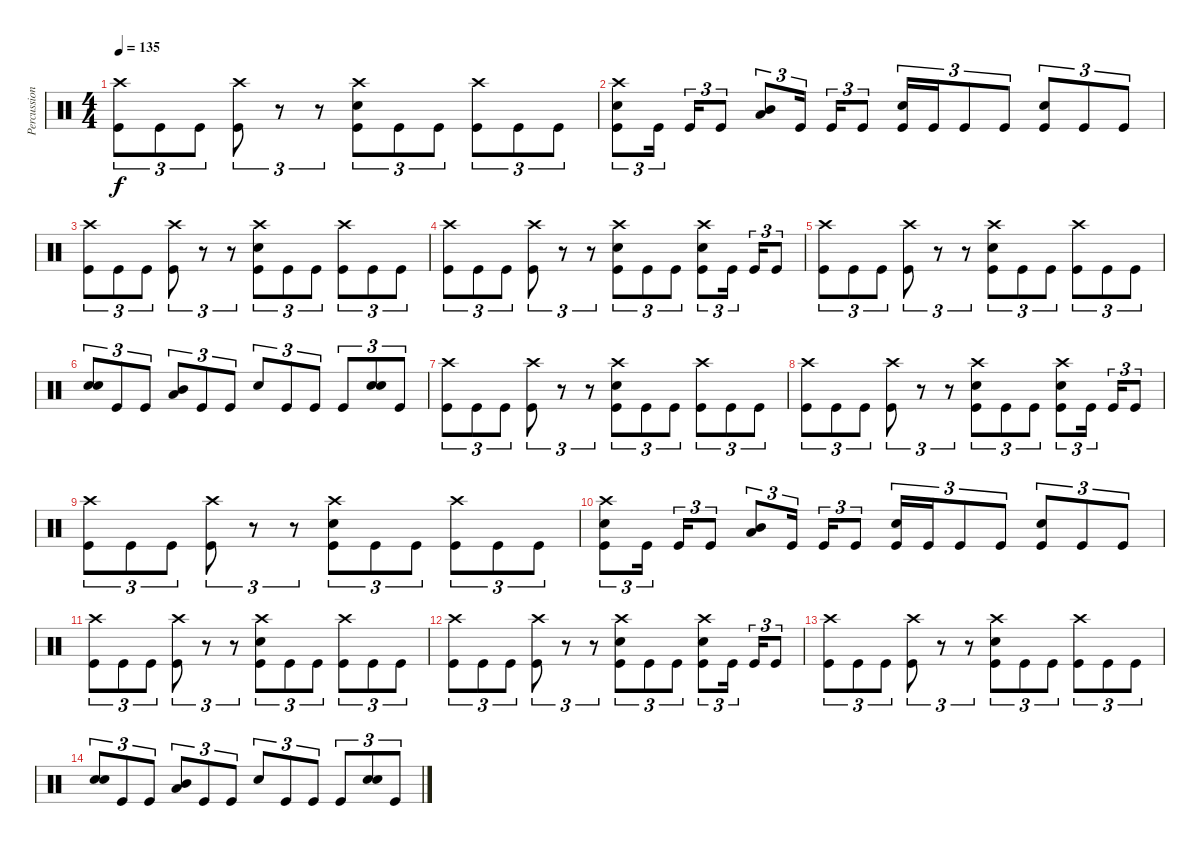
\track ("Percussion" "Percussion") {instrument percussion}
\staff {score}
\articulation defaults
\ts (4 4)
\tempo 135
\clef neutral
\ks c
("Crash high (hit)" "Kick (hit)").8{tu (3 2) dy f} "Kick (hit)".8{tu (3 2)} "Kick (hit)".8{tu (3 2)} ("Kick (hit)" "Crash high (hit)").8{tu (3 2)} r.8{tu (3 2)} r.8{tu (3 2)} ("Crash high (hit)" "Kick (hit)" "Snare (hit) 2").8{tu (3 2)} "Kick (hit)".8{tu (3 2)} "Kick (hit)".8{tu (3 2)} ("Kick (hit)" "Crash high (hit)").8{tu (3 2)} "Kick (hit)".8{tu (3 2)} "Kick (hit)".8{tu (3 2)} |
("Crash high (hit)" "Snare (hit) 2" "Kick (hit)").8{tu (3 2)} "Kick (hit)".16{tu (3 2) beam splitsecondary} "Kick (hit)".16{tu (3 2)} "Kick (hit)".8{tu (3 2)} ("Mid Tom (hit)" "Low Tom (hit)").8{tu (3 2)} "Kick (hit)".16{tu (3 2) beam splitsecondary} "Kick (hit)".16{tu (3 2)} "Kick (hit)".8{tu (3 2)} ("Snare (hit) 2" "Kick (hit)").16{tu (3 2)} "Kick (hit)".16{tu (3 2)} "Kick (hit)".8{tu (3 2)} "Kick (hit)".8{tu (3 2)} ("Snare (hit) 2" "Kick (hit)").8{tu (3 2)} "Kick (hit)".8{tu (3 2)} "Kick (hit)".8{tu (3 2)} |
("Crash high (hit)" "Kick (hit)").8{tu (3 2)} "Kick (hit)".8{tu (3 2)} "Kick (hit)".8{tu (3 2)} ("Kick (hit)" "Crash high (hit)").8{tu (3 2)} r.8{tu (3 2)} r.8{tu (3 2)} ("Crash high (hit)" "Kick (hit)" "Snare (hit) 2").8{tu (3 2)} "Kick (hit)".8{tu (3 2)} "Kick (hit)".8{tu (3 2)} ("Kick (hit)" "Crash high (hit)").8{tu (3 2)} "Kick (hit)".8{tu (3 2)} "Kick (hit)".8{tu (3 2)} |
("Crash high (hit)" "Kick (hit)").8{tu (3 2)} "Kick (hit)".8{tu (3 2)} "Kick (hit)".8{tu (3 2)} ("Kick (hit)" "Crash high (hit)").8{tu (3 2)} r.8{tu (3 2)} r.8{tu (3 2)} ("Crash high (hit)" "Kick (hit)" "Snare (hit) 2").8{tu (3 2)} "Kick (hit)".8{tu (3 2)} "Kick (hit)".8{tu (3 2)} ("Kick (hit)" "Crash high (hit)" "Snare (hit) 2").8{tu (3 2)} "Kick (hit)".16{tu (3 2) beam splitsecondary} "Kick (hit)".16{tu (3 2)} "Kick (hit)".8{tu (3 2)} |
("Crash high (hit)" "Kick (hit)").8{tu (3 2)} "Kick (hit)".8{tu (3 2)} "Kick (hit)".8{tu (3 2)} ("Kick (hit)" "Crash high (hit)").8{tu (3 2)} r.8{tu (3 2)} r.8{tu (3 2)} ("Crash high (hit)" "Kick (hit)" "Snare (hit) 2").8{tu (3 2)} "Kick (hit)".8{tu (3 2)} "Kick (hit)".8{tu (3 2)} ("Kick (hit)" "Crash high (hit)").8{tu (3 2)} "Kick (hit)".8{tu (3 2)} "Kick (hit)".8{tu (3 2)} |
("Snare (hit) 2" "Snare (hit) 2").8{tu (3 2)} "Kick (hit)".8{tu (3 2)} "Kick (hit)".8{tu (3 2)} ("Mid Tom (hit)" "Low Tom (hit)").8{tu (3 2)} "Kick (hit)".8{tu (3 2)} "Kick (hit)".8{tu (3 2)} "Snare (hit) 2".8{tu (3 2)} "Kick (hit)".8{tu (3 2)} "Kick (hit)".8{tu (3 2)} "Kick (hit)".8{tu (3 2)} ("Snare (hit) 2" "Snare (hit) 2").8{tu (3 2)} "Kick (hit)".8{tu (3 2)} |
("Crash high (hit)" "Kick (hit)").8{tu (3 2) volume 8} "Kick (hit)".8{tu (3 2)} "Kick (hit)".8{tu (3 2)} ("Kick (hit)" "Crash high (hit)").8{tu (3 2)} r.8{tu (3 2)} r.8{tu (3 2)} ("Crash high (hit)" "Kick (hit)" "Snare (hit) 2").8{tu (3 2)} "Kick (hit)".8{tu (3 2)} "Kick (hit)".8{tu (3 2)} ("Kick (hit)" "Crash high (hit)").8{tu (3 2)} "Kick (hit)".8{tu (3 2)} "Kick (hit)".8{tu (3 2)} |
("Crash high (hit)" "Kick (hit)").8{tu (3 2)} "Kick (hit)".8{tu (3 2)} "Kick (hit)".8{tu (3 2)} ("Kick (hit)" "Crash high (hit)").8{tu (3 2)} r.8{tu (3 2)} r.8{tu (3 2)} ("Crash high (hit)" "Kick (hit)" "Snare (hit) 2").8{tu (3 2)} "Kick (hit)".8{tu (3 2)} "Kick (hit)".8{tu (3 2)} ("Kick (hit)" "Crash high (hit)" "Snare (hit) 2").8{tu (3 2)} "Kick (hit)".16{tu (3 2) beam splitsecondary} "Kick (hit)".16{tu (3 2)} "Kick (hit)".8{tu (3 2)} |
("Crash high (hit)" "Kick (hit)").8{tu (3 2)} "Kick (hit)".8{tu (3 2)} "Kick (hit)".8{tu (3 2)} ("Kick (hit)" "Crash high (hit)").8{tu (3 2)} r.8{tu (3 2)} r.8{tu (3 2)} ("Crash high (hit)" "Kick (hit)" "Snare (hit) 2").8{tu (3 2)} "Kick (hit)".8{tu (3 2)} "Kick (hit)".8{tu (3 2)} ("Kick (hit)" "Crash high (hit)").8{tu (3 2)} "Kick (hit)".8{tu (3 2)} "Kick (hit)".8{tu (3 2)} |
("Crash high (hit)" "Snare (hit) 2" "Kick (hit)").8{tu (3 2)} "Kick (hit)".16{tu (3 2) beam splitsecondary} "Kick (hit)".16{tu (3 2)} "Kick (hit)".8{tu (3 2)} ("Mid Tom (hit)" "Low Tom (hit)").8{tu (3 2)} "Kick (hit)".16{tu (3 2) beam splitsecondary} "Kick (hit)".16{tu (3 2)} "Kick (hit)".8{tu (3 2)} ("Snare (hit) 2" "Kick (hit)").16{tu (3 2)} "Kick (hit)".16{tu (3 2)} "Kick (hit)".8{tu (3 2)} "Kick (hit)".8{tu (3 2)} ("Snare (hit) 2" "Kick (hit)").8{tu (3 2)} "Kick (hit)".8{tu (3 2)} "Kick (hit)".8{tu (3 2)} |
("Crash high (hit)" "Kick (hit)").8{tu (3 2) volume 0} "Kick (hit)".8{tu (3 2)} "Kick (hit)".8{tu (3 2)} ("Kick (hit)" "Crash high (hit)").8{tu (3 2)} r.8{tu (3 2)} r.8{tu (3 2)} ("Crash high (hit)" "Kick (hit)" "Snare (hit) 2").8{tu (3 2)} "Kick (hit)".8{tu (3 2)} "Kick (hit)".8{tu (3 2)} ("Kick (hit)" "Crash high (hit)").8{tu (3 2)} "Kick (hit)".8{tu (3 2)} "Kick (hit)".8{tu (3 2)} |
("Crash high (hit)" "Kick (hit)").8{tu (3 2)} "Kick (hit)".8{tu (3 2)} "Kick (hit)".8{tu (3 2)} ("Kick (hit)" "Crash high (hit)").8{tu (3 2)} r.8{tu (3 2)} r.8{tu (3 2)} ("Crash high (hit)" "Kick (hit)" "Snare (hit) 2").8{tu (3 2)} "Kick (hit)".8{tu (3 2)} "Kick (hit)".8{tu (3 2)} ("Kick (hit)" "Crash high (hit)" "Snare (hit) 2").8{tu (3 2)} "Kick (hit)".16{tu (3 2) beam splitsecondary} "Kick (hit)".16{tu (3 2)} "Kick (hit)".8{tu (3 2)} |
("Crash high (hit)" "Kick (hit)").8{tu (3 2)} "Kick (hit)".8{tu (3 2)} "Kick (hit)".8{tu (3 2)} ("Kick (hit)" "Crash high (hit)").8{tu (3 2)} r.8{tu (3 2)} r.8{tu (3 2)} ("Crash high (hit)" "Kick (hit)" "Snare (hit) 2").8{tu (3 2)} "Kick (hit)".8{tu (3 2)} "Kick (hit)".8{tu (3 2)} ("Kick (hit)" "Crash high (hit)").8{tu (3 2)} "Kick (hit)".8{tu (3 2)} "Kick (hit)".8{tu (3 2)} |
("Snare (hit) 2" "Snare (hit) 2").8{tu (3 2)} "Kick (hit)".8{tu (3 2)} "Kick (hit)".8{tu (3 2)} ("Mid Tom (hit)" "Low Tom (hit)").8{tu (3 2)} "Kick (hit)".8{tu (3 2)} "Kick (hit)".8{tu (3 2)} "Snare (hit) 2".8{tu (3 2)} "Kick (hit)".8{tu (3 2)} "Kick (hit)".8{tu (3 2)} "Kick (hit)".8{tu (3 2)} ("Snare (hit) 2" "Snare (hit) 2").8{tu (3 2)} "Kick (hit)".8{tu (3 2)}
